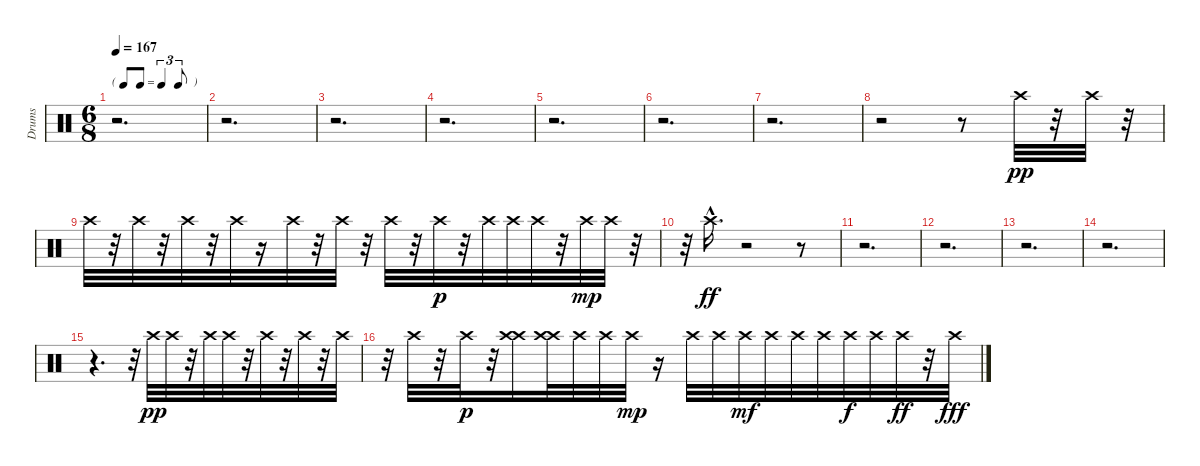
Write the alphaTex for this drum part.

\track ("Drums" "Drums") {instrument percussion}
\staff {score}
\articulation defaults
\ts (6 8)
\tf triplet8th
\tempo 167
\clef neutral
\ks c
r.2{d dy ff} |
r.2{d} |
r.2{d} |
r.2{d} |
r.2{d} |
r.2{d} |
r.2{d} |
r.2 r.8 "Crash high (hit)".32{dy pp} r.32 "Crash high (hit)".32 r.32 |
"Crash high (hit)".32 r.32 "Crash high (hit)".32 r.32 "Crash high (hit)".32 r.32 "Crash high (hit)".32 r.16 "Crash high (hit)".32 r.32 "Crash high (hit)".32 r.32 "Crash high (hit)".32 r.32 "Crash high (hit)".32{dy p} r.32 "Crash high (hit)".32 "Crash high (hit)".32 "Crash high (hit)".32 r.32 "Crash high (hit)".32{dy mp} "Crash high (hit)".32 r.32 |
r.32 "Crash high (hit)"{hac}.16{d dy ff} r.2 r.8 |
r.2{d} |
r.2{d} |
r.2{d} |
r.2{d} |
r.4{d} r.32 "Crash high (hit)".32{dy pp} "Crash high (hit)".32 r.32 "Crash high (hit)".32 "Crash high (hit)".32 r.32 "Crash high (hit)".32 r.32 "Crash high (hit)".32 r.32 "Crash high (hit)".32 |
r.32 "Crash high (hit)".32 r.32 "Crash high (hit)".32{dy p} r.32 ("Crash high (hit)" "Crash high (hit)").16 ("Crash high (hit)" "Crash high (hit)").32 "Crash high (hit)".32 "Crash high (hit)".32 "Crash high (hit)".32{dy mp} r.16 "Crash high (hit)".32 "Crash high (hit)".32 "Crash high (hit)".32{dy mf} "Crash high (hit)".32 "Crash high (hit)".32 "Crash high (hit)".32 "Crash high (hit)".32{dy f} "Crash high (hit)".32 "Crash high (hit)".32{dy ff} r.32 "Crash high (hit)".32{dy fff}
